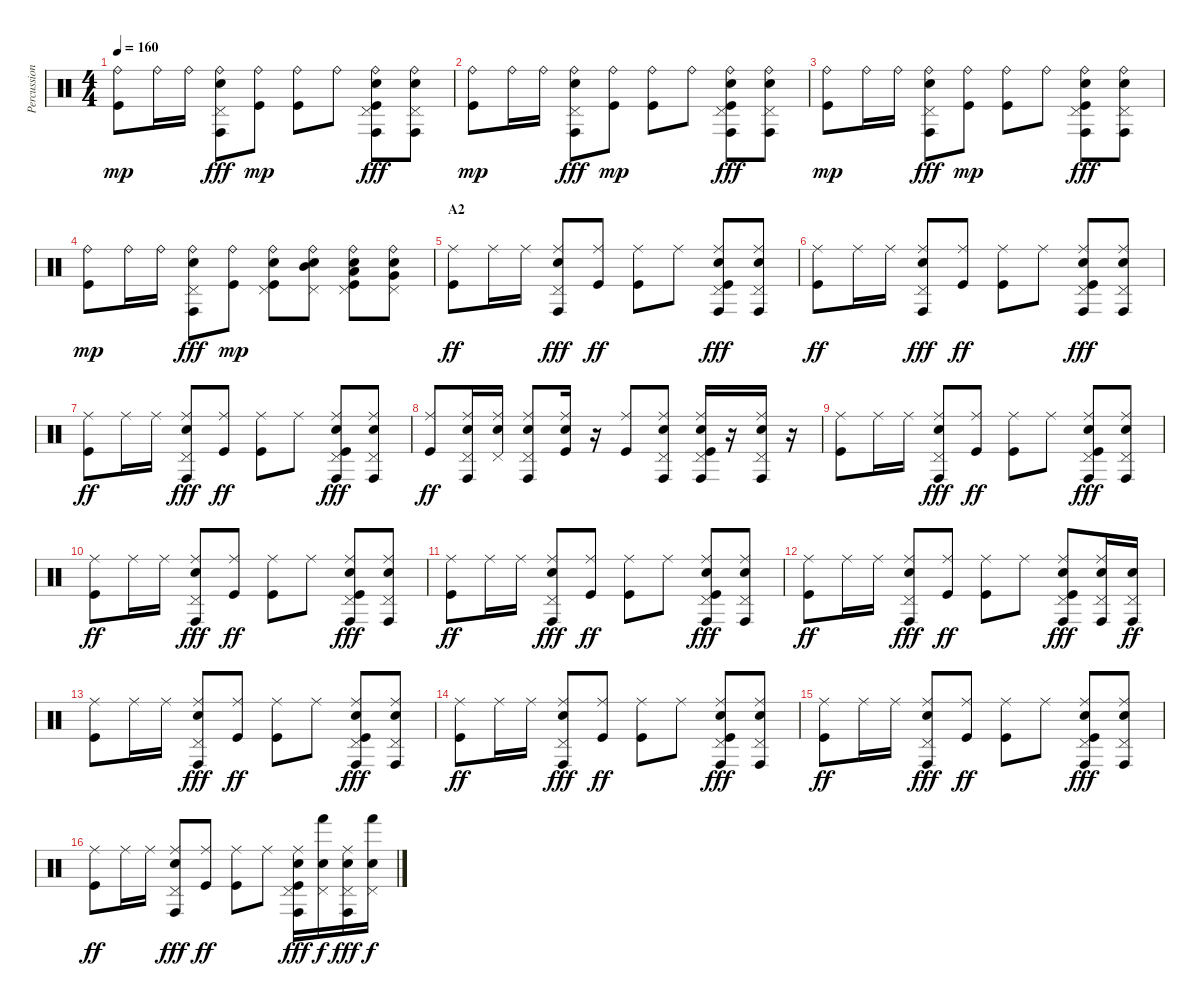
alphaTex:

\track ("Percussion" "Percussion") {instrument percussion}
\staff {score}
\articulation defaults
\ts (4 4)
\tempo 160
\clef neutral
\ks c
("Ride (bell)" "Kick (hit)").8{dy mp} "Ride (bell)".16 "Ride (bell)".16 ("Ride (bell)" "Pedal Hi-Hat (hit)" "Conga high (hit)" "Electric Snare (hit)").8{dy fff} ("Ride (bell)" "Kick (hit)").8{dy mp} ("Ride (bell)" "Kick (hit)").8 "Ride (bell)".8 ("Ride (bell)" "Pedal Hi-Hat (hit)" "Conga high (hit)" "Electric Snare (hit)" "Kick (hit)").8{dy fff} ("Ride (bell)" "Pedal Hi-Hat (hit)" "Conga high (hit)" "Electric Snare (hit)").8 |
("Ride (bell)" "Kick (hit)").8{dy mp} "Ride (bell)".16 "Ride (bell)".16 ("Ride (bell)" "Pedal Hi-Hat (hit)" "Conga high (hit)" "Electric Snare (hit)").8{dy fff} ("Ride (bell)" "Kick (hit)").8{dy mp} ("Ride (bell)" "Kick (hit)").8 "Ride (bell)".8 ("Ride (bell)" "Pedal Hi-Hat (hit)" "Conga high (hit)" "Electric Snare (hit)" "Kick (hit)").8{dy fff} ("Ride (bell)" "Pedal Hi-Hat (hit)" "Conga high (hit)" "Electric Snare (hit)").8 |
("Ride (bell)" "Kick (hit)").8{dy mp} "Ride (bell)".16 "Ride (bell)".16 ("Ride (bell)" "Pedal Hi-Hat (hit)" "Conga high (hit)" "Electric Snare (hit)").8{dy fff} ("Ride (bell)" "Kick (hit)").8{dy mp} ("Ride (bell)" "Kick (hit)").8 "Ride (bell)".8 ("Ride (bell)" "Pedal Hi-Hat (hit)" "Conga high (hit)" "Electric Snare (hit)" "Kick (hit)").8{dy fff} ("Ride (bell)" "Pedal Hi-Hat (hit)" "Conga high (hit)" "Electric Snare (hit)").8 |
("Ride (bell)" "Kick (hit)").8{dy mp} "Ride (bell)".16 "Ride (bell)".16 ("Ride (bell)" "Pedal Hi-Hat (hit)" "Conga high (hit)" "Electric Snare (hit)").8{dy fff} ("Ride (bell)" "Kick (hit)").8{dy mp} ("Ride (bell)" "Pedal Hi-Hat (hit)" "Electric Snare (hit)" "Kick (hit)").8 ("Ride (bell)" "Pedal Hi-Hat (hit)" "Mid Tom (hit)" "Electric Snare (hit)").8 ("Ride (bell)" "Pedal Hi-Hat (hit)" "Low Tom (hit)" "Electric Snare (hit)" "Kick (hit)").8 ("Ride (bell)" "Pedal Hi-Hat (hit)" "Very Low Tom (hit)" "Electric Snare (hit)").8 |
\section ("" "A2")
("Ride (middle)" "Kick (hit)").8{dy ff} "Ride (middle)".16 "Ride (middle)".16 ("Ride (middle)" "Pedal Hi-Hat (hit)" "Conga high (hit)" "Electric Snare (hit)").8{dy fff} ("Ride (middle)" "Kick (hit)").8{dy ff} ("Ride (middle)" "Kick (hit)").8 "Ride (middle)".8 ("Ride (middle)" "Pedal Hi-Hat (hit)" "Conga high (hit)" "Electric Snare (hit)" "Kick (hit)").8{dy fff} ("Ride (middle)" "Pedal Hi-Hat (hit)" "Conga high (hit)" "Electric Snare (hit)").8 |
("Ride (middle)" "Kick (hit)").8{dy ff} "Ride (middle)".16 "Ride (middle)".16 ("Ride (middle)" "Pedal Hi-Hat (hit)" "Conga high (hit)" "Electric Snare (hit)").8{dy fff} ("Ride (middle)" "Kick (hit)").8{dy ff} ("Ride (middle)" "Kick (hit)").8 "Ride (middle)".8 ("Ride (middle)" "Pedal Hi-Hat (hit)" "Conga high (hit)" "Electric Snare (hit)" "Kick (hit)").8{dy fff} ("Ride (middle)" "Pedal Hi-Hat (hit)" "Conga high (hit)" "Electric Snare (hit)").8 |
("Ride (middle)" "Kick (hit)").8{dy ff} "Ride (middle)".16 "Ride (middle)".16 ("Ride (middle)" "Pedal Hi-Hat (hit)" "Conga high (hit)" "Electric Snare (hit)").8{dy fff} ("Ride (middle)" "Kick (hit)").8{dy ff} ("Ride (middle)" "Kick (hit)").8 "Ride (middle)".8 ("Ride (middle)" "Pedal Hi-Hat (hit)" "Conga high (hit)" "Electric Snare (hit)" "Kick (hit)").8{dy fff} ("Ride (middle)" "Pedal Hi-Hat (hit)" "Conga high (hit)" "Electric Snare (hit)").8 |
("Ride (middle)" "Kick (hit)").8{dy ff} ("Ride (middle)" "Pedal Hi-Hat (hit)" "Conga high (hit)" "Electric Snare (hit)").16 ("Ride (middle)" "Pedal Hi-Hat (hit)" "Electric Snare (hit)").16 ("Ride (middle)" "Pedal Hi-Hat (hit)" "Conga high (hit)" "Electric Snare (hit)").8 ("Ride (middle)" "Electric Snare (hit)" "Kick (hit)").16 r.16 ("Ride (middle)" "Kick (hit)").8 ("Ride (middle)" "Pedal Hi-Hat (hit)" "Conga high (hit)" "Electric Snare (hit)").8 ("Ride (middle)" "Pedal Hi-Hat (hit)" "Conga high (hit)" "Electric Snare (hit)" "Kick (hit)").16 r.16 ("Ride (middle)" "Pedal Hi-Hat (hit)" "Conga high (hit)" "Electric Snare (hit)").16 r.16 |
("Ride (middle)" "Kick (hit)").8 "Ride (middle)".16 "Ride (middle)".16 ("Ride (middle)" "Pedal Hi-Hat (hit)" "Conga high (hit)" "Electric Snare (hit)").8{dy fff} ("Ride (middle)" "Kick (hit)").8{dy ff} ("Ride (middle)" "Kick (hit)").8 "Ride (middle)".8 ("Ride (middle)" "Pedal Hi-Hat (hit)" "Conga high (hit)" "Electric Snare (hit)" "Kick (hit)").8{dy fff} ("Ride (middle)" "Pedal Hi-Hat (hit)" "Conga high (hit)" "Electric Snare (hit)").8 |
("Ride (middle)" "Kick (hit)").8{dy ff} "Ride (middle)".16 "Ride (middle)".16 ("Ride (middle)" "Pedal Hi-Hat (hit)" "Conga high (hit)" "Electric Snare (hit)").8{dy fff} ("Ride (middle)" "Kick (hit)").8{dy ff} ("Ride (middle)" "Kick (hit)").8 "Ride (middle)".8 ("Ride (middle)" "Pedal Hi-Hat (hit)" "Conga high (hit)" "Electric Snare (hit)" "Kick (hit)").8{dy fff} ("Ride (middle)" "Pedal Hi-Hat (hit)" "Conga high (hit)" "Electric Snare (hit)").8 |
("Ride (middle)" "Kick (hit)").8{dy ff} "Ride (middle)".16 "Ride (middle)".16 ("Ride (middle)" "Pedal Hi-Hat (hit)" "Conga high (hit)" "Electric Snare (hit)").8{dy fff} ("Ride (middle)" "Kick (hit)").8{dy ff} ("Ride (middle)" "Kick (hit)").8 "Ride (middle)".8 ("Ride (middle)" "Pedal Hi-Hat (hit)" "Conga high (hit)" "Electric Snare (hit)" "Kick (hit)").8{dy fff} ("Ride (middle)" "Pedal Hi-Hat (hit)" "Conga high (hit)" "Electric Snare (hit)").8 |
("Ride (middle)" "Kick (hit)").8{dy ff} "Ride (middle)".16 "Ride (middle)".16 ("Ride (middle)" "Pedal Hi-Hat (hit)" "Conga high (hit)" "Electric Snare (hit)").8{dy fff} ("Ride (middle)" "Kick (hit)").8{dy ff} ("Ride (middle)" "Kick (hit)").8 "Ride (middle)".8 ("Ride (middle)" "Pedal Hi-Hat (hit)" "Conga high (hit)" "Electric Snare (hit)" "Kick (hit)").8{dy fff} ("Ride (middle)" "Pedal Hi-Hat (hit)" "Conga high (hit)" "Electric Snare (hit)").16 ("Pedal Hi-Hat (hit)" "Conga high (hit)" "Electric Snare (hit)").16{dy ff} |
("Ride (middle)" "Kick (hit)").8 "Ride (middle)".16 "Ride (middle)".16 ("Ride (middle)" "Pedal Hi-Hat (hit)" "Conga high (hit)" "Electric Snare (hit)").8{dy fff} ("Ride (middle)" "Kick (hit)").8{dy ff} ("Ride (middle)" "Kick (hit)").8 "Ride (middle)".8 ("Ride (middle)" "Pedal Hi-Hat (hit)" "Conga high (hit)" "Electric Snare (hit)" "Kick (hit)").8{dy fff} ("Ride (middle)" "Pedal Hi-Hat (hit)" "Conga high (hit)" "Electric Snare (hit)").8 |
("Ride (middle)" "Kick (hit)").8{dy ff} "Ride (middle)".16 "Ride (middle)".16 ("Ride (middle)" "Pedal Hi-Hat (hit)" "Conga high (hit)" "Electric Snare (hit)").8{dy fff} ("Ride (middle)" "Kick (hit)").8{dy ff} ("Ride (middle)" "Kick (hit)").8 "Ride (middle)".8 ("Ride (middle)" "Pedal Hi-Hat (hit)" "Conga high (hit)" "Electric Snare (hit)" "Kick (hit)").8{dy fff} ("Ride (middle)" "Pedal Hi-Hat (hit)" "Conga high (hit)" "Electric Snare (hit)").8 |
("Ride (middle)" "Kick (hit)").8{dy ff} "Ride (middle)".16 "Ride (middle)".16 ("Ride (middle)" "Pedal Hi-Hat (hit)" "Conga high (hit)" "Electric Snare (hit)").8{dy fff} ("Ride (middle)" "Kick (hit)").8{dy ff} ("Ride (middle)" "Kick (hit)").8 "Ride (middle)".8 ("Ride (middle)" "Pedal Hi-Hat (hit)" "Conga high (hit)" "Electric Snare (hit)" "Kick (hit)").8{dy fff} ("Ride (middle)" "Pedal Hi-Hat (hit)" "Conga high (hit)" "Electric Snare (hit)").8 |
("Ride (middle)" "Kick (hit)").8{dy ff} "Ride (middle)".16 "Ride (middle)".16 ("Ride (middle)" "Pedal Hi-Hat (hit)" "Conga high (hit)" "Electric Snare (hit)").8{dy fff} ("Ride (middle)" "Kick (hit)").8{dy ff} ("Ride (middle)" "Kick (hit)").8 "Ride (middle)".8 ("Ride (middle)" "Pedal Hi-Hat (hit)" "Conga high (hit)" "Electric Snare (hit)" "Kick (hit)").16{dy fff} ("Pedal Hi-Hat (hit)" "Hand (hit)" "Electric Snare (hit)").16{dy f} ("Ride (middle)" "Pedal Hi-Hat (hit)" "Conga high (hit)" "Electric Snare (hit)").16{dy fff} ("Pedal Hi-Hat (hit)" "Hand (hit)" "Electric Snare (hit)").16{dy f}
